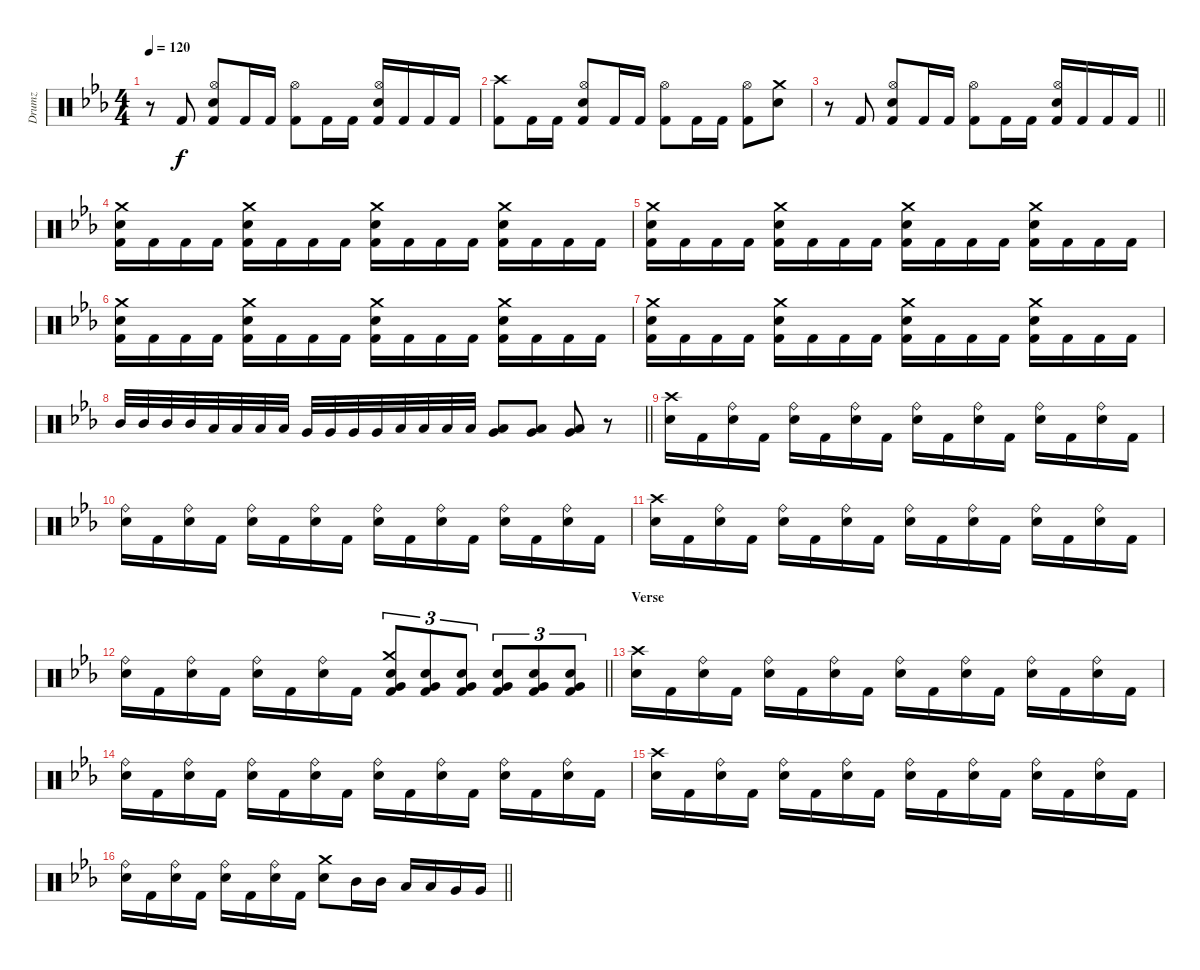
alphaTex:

\track ("Drumz" "Drumz") {instrument percussion}
\staff {score}
\articulation defaults
\ts (4 4)
\tempo 120
\clef neutral
\ks eb
r.8{dy f} "Kick (hit) 2".8 ("Hi-Hat (open)" "Electric Snare (hit)" "Kick (hit) 2").8 "Kick (hit) 2".16 "Kick (hit) 2".16 ("Hi-Hat (open)" "Kick (hit) 2").8 "Kick (hit) 2".16 "Kick (hit) 2".16 ("Hi-Hat (open)" "Electric Snare (hit)" "Kick (hit) 2").16 "Kick (hit) 2".16 "Kick (hit) 2".16 "Kick (hit) 2".16 |
("Crash high (hit)" "Kick (hit) 2").8 "Kick (hit) 2".16 "Kick (hit) 2".16 ("Hi-Hat (open)" "Electric Snare (hit)" "Kick (hit) 2").8 "Kick (hit) 2".16 "Kick (hit) 2".16 ("Hi-Hat (open)" "Kick (hit) 2").8 "Kick (hit) 2".16 "Kick (hit) 2".16 ("Hi-Hat (open)" "Kick (hit) 2").8 ("Crash medium (hit)" "Electric Snare (hit)").8 |
\barLineRight lightlight
r.8 "Kick (hit) 2".8 ("Hi-Hat (open)" "Electric Snare (hit)" "Kick (hit) 2").8 "Kick (hit) 2".16 "Kick (hit) 2".16 ("Hi-Hat (open)" "Kick (hit) 2").8 "Kick (hit) 2".16 "Kick (hit) 2".16 ("Hi-Hat (open)" "Electric Snare (hit)" "Kick (hit) 2").16 "Kick (hit) 2".16 "Kick (hit) 2".16 "Kick (hit) 2".16 |
\section ("" "")
("Crash medium (hit)" "Electric Snare (hit)" "Kick (hit) 2").16 "Kick (hit) 2".16 "Kick (hit) 2".16 "Kick (hit) 2".16 ("Crash medium (hit)" "Electric Snare (hit)" "Kick (hit) 2").16 "Kick (hit) 2".16 "Kick (hit) 2".16 "Kick (hit) 2".16 ("Crash medium (hit)" "Electric Snare (hit)" "Kick (hit) 2").16 "Kick (hit) 2".16 "Kick (hit) 2".16 "Kick (hit) 2".16 ("Crash medium (hit)" "Electric Snare (hit)" "Kick (hit) 2").16 "Kick (hit) 2".16 "Kick (hit) 2".16 "Kick (hit) 2".16 |
("Crash medium (hit)" "Electric Snare (hit)" "Kick (hit) 2").16 "Kick (hit) 2".16 "Kick (hit) 2".16 "Kick (hit) 2".16 ("Crash medium (hit)" "Electric Snare (hit)" "Kick (hit) 2").16 "Kick (hit) 2".16 "Kick (hit) 2".16 "Kick (hit) 2".16 ("Crash medium (hit)" "Electric Snare (hit)" "Kick (hit) 2").16 "Kick (hit) 2".16 "Kick (hit) 2".16 "Kick (hit) 2".16 ("Crash medium (hit)" "Electric Snare (hit)" "Kick (hit) 2").16 "Kick (hit) 2".16 "Kick (hit) 2".16 "Kick (hit) 2".16 |
("Crash medium (hit)" "Electric Snare (hit)" "Kick (hit) 2").16 "Kick (hit) 2".16 "Kick (hit) 2".16 "Kick (hit) 2".16 ("Crash medium (hit)" "Electric Snare (hit)" "Kick (hit) 2").16 "Kick (hit) 2".16 "Kick (hit) 2".16 "Kick (hit) 2".16 ("Crash medium (hit)" "Electric Snare (hit)" "Kick (hit) 2").16 "Kick (hit) 2".16 "Kick (hit) 2".16 "Kick (hit) 2".16 ("Crash medium (hit)" "Electric Snare (hit)" "Kick (hit) 2").16 "Kick (hit) 2".16 "Kick (hit) 2".16 "Kick (hit) 2".16 |
("Crash medium (hit)" "Electric Snare (hit)" "Kick (hit) 2").16 "Kick (hit) 2".16 "Kick (hit) 2".16 "Kick (hit) 2".16 ("Crash medium (hit)" "Electric Snare (hit)" "Kick (hit) 2").16 "Kick (hit) 2".16 "Kick (hit) 2".16 "Kick (hit) 2".16 ("Crash medium (hit)" "Electric Snare (hit)" "Kick (hit) 2").16 "Kick (hit) 2".16 "Kick (hit) 2".16 "Kick (hit) 2".16 ("Crash medium (hit)" "Electric Snare (hit)" "Kick (hit) 2").16 "Kick (hit) 2".16 "Kick (hit) 2".16 "Kick (hit) 2".16 |
\barLineRight lightlight "Mid Tom (hit)".32 "Mid Tom (hit)".32 "Mid Tom (hit)".32 "Mid Tom (hit)".32 "Low Tom (hit)".32 "Low Tom (hit)".32 "Low Tom (hit)".32 "Low Tom (hit)".32 "Very Low Tom (hit)".32 "Very Low Tom (hit)".32 "Very Low Tom (hit)".32 "Very Low Tom (hit)".32 "Low Floor Tom (hit)".32 "Low Floor Tom (hit)".32 "Low Floor Tom (hit)".32 "Low Floor Tom (hit)".32
("Very Low Tom (hit)" "Low Tom (hit)").8 ("Very Low Tom (hit)" "Low Tom (hit)").8 ("Very Low Tom (hit)" "Low Tom (hit)").8 r.8 |
\section ("" "")
("Crash high (hit)" "Electric Snare (hit)").16 "Kick (hit) 2".16 ("Ride (bell)" "Electric Snare (hit)").16 "Kick (hit) 2".16 ("Ride (bell)" "Electric Snare (hit)").16 "Kick (hit) 2".16 ("Ride (bell)" "Electric Snare (hit)").16 "Kick (hit) 2".16 ("Ride (bell)" "Electric Snare (hit)").16 "Kick (hit) 2".16 ("Ride (bell)" "Electric Snare (hit)").16 "Kick (hit) 2".16 ("Ride (bell)" "Electric Snare (hit)").16 "Kick (hit) 2".16 ("Ride (bell)" "Electric Snare (hit)").16 "Kick (hit) 2".16 |
("Ride (bell)" "Electric Snare (hit)").16 "Kick (hit) 2".16 ("Ride (bell)" "Electric Snare (hit)").16 "Kick (hit) 2".16 ("Ride (bell)" "Electric Snare (hit)").16 "Kick (hit) 2".16 ("Ride (bell)" "Electric Snare (hit)").16 "Kick (hit) 2".16 ("Ride (bell)" "Electric Snare (hit)").16 "Kick (hit) 2".16 ("Ride (bell)" "Electric Snare (hit)").16 "Kick (hit) 2".16 ("Ride (bell)" "Electric Snare (hit)").16 "Kick (hit) 2".16 ("Ride (bell)" "Electric Snare (hit)").16 "Kick (hit) 2".16 |
("Crash high (hit)" "Electric Snare (hit)").16 "Kick (hit) 2".16 ("Ride (bell)" "Electric Snare (hit)").16 "Kick (hit) 2".16 ("Ride (bell)" "Electric Snare (hit)").16 "Kick (hit) 2".16 ("Ride (bell)" "Electric Snare (hit)").16 "Kick (hit) 2".16 ("Ride (bell)" "Electric Snare (hit)").16 "Kick (hit) 2".16 ("Ride (bell)" "Electric Snare (hit)").16 "Kick (hit) 2".16 ("Ride (bell)" "Electric Snare (hit)").16 "Kick (hit) 2".16 ("Ride (bell)" "Electric Snare (hit)").16 "Kick (hit) 2".16 |
\barLineRight lightlight
("Ride (bell)" "Electric Snare (hit)").16 "Kick (hit) 2".16 ("Ride (bell)" "Electric Snare (hit)").16 "Kick (hit) 2".16 ("Ride (bell)" "Electric Snare (hit)").16 "Kick (hit) 2".16 ("Ride (bell)" "Electric Snare (hit)").16 "Kick (hit) 2".16 ("Crash medium (hit)" "Electric Snare (hit)" "Very Low Tom (hit)" "Kick (hit) 2").8{tu (3 2)} ("Electric Snare (hit)" "Very Low Tom (hit)" "Kick (hit) 2").8{tu (3 2)} ("Electric Snare (hit)" "Very Low Tom (hit)" "Kick (hit) 2").8{tu (3 2)} ("Electric Snare (hit)" "Very Low Tom (hit)" "Kick (hit) 2").8{tu (3 2)} ("Electric Snare (hit)" "Very Low Tom (hit)" "Kick (hit) 2").8{tu (3 2)} ("Electric Snare (hit)" "Very Low Tom (hit)" "Kick (hit) 2").8{tu (3 2)} |
\section ("" "Verse")
("Crash high (hit)" "Electric Snare (hit)").16 "Kick (hit) 2".16 ("Ride (bell)" "Electric Snare (hit)").16 "Kick (hit) 2".16 ("Ride (bell)" "Electric Snare (hit)").16 "Kick (hit) 2".16 ("Ride (bell)" "Electric Snare (hit)").16 "Kick (hit) 2".16 ("Ride (bell)" "Electric Snare (hit)").16 "Kick (hit) 2".16 ("Ride (bell)" "Electric Snare (hit)").16 "Kick (hit) 2".16 ("Ride (bell)" "Electric Snare (hit)").16 "Kick (hit) 2".16 ("Ride (bell)" "Electric Snare (hit)").16 "Kick (hit) 2".16 |
("Ride (bell)" "Electric Snare (hit)").16 "Kick (hit) 2".16 ("Ride (bell)" "Electric Snare (hit)").16 "Kick (hit) 2".16 ("Ride (bell)" "Electric Snare (hit)").16 "Kick (hit) 2".16 ("Ride (bell)" "Electric Snare (hit)").16 "Kick (hit) 2".16 ("Ride (bell)" "Electric Snare (hit)").16 "Kick (hit) 2".16 ("Ride (bell)" "Electric Snare (hit)").16 "Kick (hit) 2".16 ("Ride (bell)" "Electric Snare (hit)").16 "Kick (hit) 2".16 ("Ride (bell)" "Electric Snare (hit)").16 "Kick (hit) 2".16 |
("Crash high (hit)" "Electric Snare (hit)").16 "Kick (hit) 2".16 ("Ride (bell)" "Electric Snare (hit)").16 "Kick (hit) 2".16 ("Ride (bell)" "Electric Snare (hit)").16 "Kick (hit) 2".16 ("Ride (bell)" "Electric Snare (hit)").16 "Kick (hit) 2".16 ("Ride (bell)" "Electric Snare (hit)").16 "Kick (hit) 2".16 ("Ride (bell)" "Electric Snare (hit)").16 "Kick (hit) 2".16 ("Ride (bell)" "Electric Snare (hit)").16 "Kick (hit) 2".16 ("Ride (bell)" "Electric Snare (hit)").16 "Kick (hit) 2".16 |
\barLineRight lightlight
("Ride (bell)" "Electric Snare (hit)").16 "Kick (hit) 2".16 ("Ride (bell)" "Electric Snare (hit)").16 "Kick (hit) 2".16 ("Ride (bell)" "Electric Snare (hit)").16 "Kick (hit) 2".16 ("Ride (bell)" "Electric Snare (hit)").16 "Kick (hit) 2".16 ("Crash medium (hit)" "Electric Snare (hit)").8 "Mid Tom (hit)".16 "Mid Tom (hit)".16 "Low Tom (hit)".16 "Low Tom (hit)".16 "Very Low Tom (hit)".16 "Very Low Tom (hit)".16
